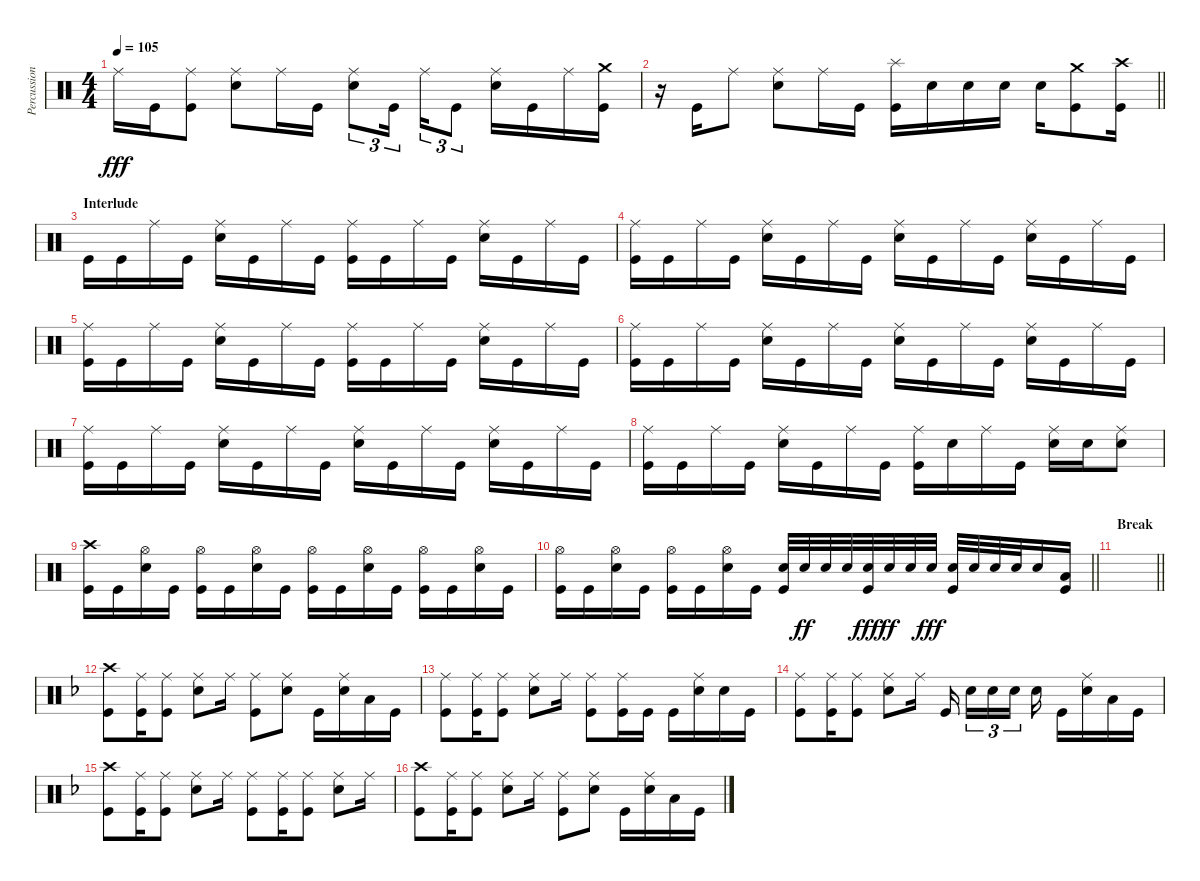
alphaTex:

\track ("Percussion" "Percussion") {instrument percussion}
\staff {score}
\articulation defaults
\ts (4 4)
\tempo 105
\clef neutral
\ks c "Ride (middle)".16{dy fff} "Kick (hit)".16
("Ride (middle)" "Kick (hit)").8 ("Ride (middle)" "Electric Snare (hit)").8 "Ride (middle)".16 "Kick (hit)".16 ("Ride (middle)" "Electric Snare (hit)").8{tu (3 2)} "Kick (hit)".16{tu (3 2) beam splitsecondary} "Ride (middle)".16{tu (3 2)} "Kick (hit)".8{tu (3 2)} ("Ride (middle)" "Electric Snare (hit)").16 "Kick (hit)".16 "Ride (middle)".16 ("Crash medium (hit)" "Kick (hit)").16 |
\barLineRight lightlight
r.16 "Kick (hit)".16 "Ride (middle)".8 ("Ride (middle)" "Electric Snare (hit)").8 "Ride (middle)".16 "Kick (hit)".16 ("Splash (hit)" "Kick (hit)").16 "Electric Snare (hit)".16 "Electric Snare (hit)".16 "Electric Snare (hit)".16 "Electric Snare (hit)".16 ("Crash medium (hit)" "Kick (hit)").8 ("Crash high (hit)" "Kick (hit)").16 |
\section ("" "Interlude")
"Kick (hit)".16 "Kick (hit)".16 "Ride (middle)".16 "Kick (hit)".16 ("Ride (middle)" "Electric Snare (hit)").16 "Kick (hit)".16 "Ride (middle)".16 "Kick (hit)".16 ("Ride (middle)" "Kick (hit)").16 "Kick (hit)".16 "Ride (middle)".16 "Kick (hit)".16 ("Ride (middle)" "Electric Snare (hit)").16 "Kick (hit)".16 "Ride (middle)".16 "Kick (hit)".16 |
("Ride (middle)" "Kick (hit)").16 "Kick (hit)".16 "Ride (middle)".16 "Kick (hit)".16 ("Ride (middle)" "Electric Snare (hit)").16 "Kick (hit)".16 "Ride (middle)".16 "Kick (hit)".16 ("Ride (middle)" "Electric Snare (hit)").16 "Kick (hit)".16 "Ride (middle)".16 "Kick (hit)".16 ("Ride (middle)" "Electric Snare (hit)").16 "Kick (hit)".16 "Ride (middle)".16 "Kick (hit)".16 |
("Ride (middle)" "Kick (hit)").16 "Kick (hit)".16 "Ride (middle)".16 "Kick (hit)".16 ("Ride (middle)" "Electric Snare (hit)").16 "Kick (hit)".16 "Ride (middle)".16 "Kick (hit)".16 ("Ride (middle)" "Kick (hit)").16 "Kick (hit)".16 "Ride (middle)".16 "Kick (hit)".16 ("Ride (middle)" "Electric Snare (hit)").16 "Kick (hit)".16 "Ride (middle)".16 "Kick (hit)".16 |
("Ride (middle)" "Kick (hit)").16 "Kick (hit)".16 "Ride (middle)".16 "Kick (hit)".16 ("Ride (middle)" "Electric Snare (hit)").16 "Kick (hit)".16 "Ride (middle)".16 "Kick (hit)".16 ("Ride (middle)" "Electric Snare (hit)").16 "Kick (hit)".16 "Ride (middle)".16 "Kick (hit)".16 ("Ride (middle)" "Electric Snare (hit)").16 "Kick (hit)".16 "Ride (middle)".16 "Kick (hit)".16 |
("Ride (middle)" "Kick (hit)").16 "Kick (hit)".16 "Ride (middle)".16 "Kick (hit)".16 ("Ride (middle)" "Electric Snare (hit)").16 "Kick (hit)".16 "Ride (middle)".16 "Kick (hit)".16 ("Ride (middle)" "Electric Snare (hit)").16 "Kick (hit)".16 "Ride (middle)".16 "Kick (hit)".16 ("Ride (middle)" "Electric Snare (hit)").16 "Kick (hit)".16 "Ride (middle)".16 "Kick (hit)".16 |
("Ride (middle)" "Kick (hit)").16 "Kick (hit)".16 "Ride (middle)".16 "Kick (hit)".16 ("Ride (middle)" "Electric Snare (hit)").16 "Kick (hit)".16 "Ride (middle)".16 "Kick (hit)".16 ("Ride (middle)" "Kick (hit)").16 "Electric Snare (hit)".16 "Ride (middle)".16 "Kick (hit)".16 ("Ride (middle)" "Electric Snare (hit)").16 "Electric Snare (hit)".16 ("Ride (middle)" "Electric Snare (hit)").8 |
("Crash high (hit)" "Kick (hit)").16 "Kick (hit)".16 ("Hi-Hat (open)" "Electric Snare (hit)").16 "Kick (hit)".16 ("Hi-Hat (open)" "Kick (hit)").16 "Kick (hit)".16 ("Hi-Hat (open)" "Electric Snare (hit)").16 "Kick (hit)".16 ("Hi-Hat (open)" "Kick (hit)").16 "Kick (hit)".16 ("Hi-Hat (open)" "Electric Snare (hit)").16 "Kick (hit)".16 ("Hi-Hat (open)" "Kick (hit)").16 "Kick (hit)".16 ("Hi-Hat (open)" "Electric Snare (hit)").16 "Kick (hit)".16 |
\barLineRight lightlight
("Hi-Hat (open)" "Kick (hit)").16 "Kick (hit)".16 ("Hi-Hat (open)" "Electric Snare (hit)").16 "Kick (hit)".16 ("Hi-Hat (open)" "Kick (hit)").16 "Kick (hit)".16 ("Hi-Hat (open)" "Electric Snare (hit)").16 "Kick (hit)".16 ("Electric Snare (hit)" "Kick (hit)").32 "Electric Snare (hit)".32{dy ff} "Electric Snare (hit)".32 "Electric Snare (hit)".32 ("Electric Snare (hit)" "Kick (hit)").32{dy fff} "Electric Snare (hit)".32{dy ff} "Electric Snare (hit)".32 "Electric Snare (hit)".32{dy fff} ("Electric Snare (hit)" "Kick (hit)").32 "Electric Snare (hit)".32 "Electric Snare (hit)".32 "Electric Snare (hit)".32 "Electric Snare (hit)".16 ("Low Floor Tom (hit)" "Kick (hit)").16 |
\section ("" "Break")
\barLineRight lightlight
|
\ks f
("Crash high (hit)" "Kick (hit)").8 ("Ride (middle)" "Kick (hit)").16 ("Ride (middle)" "Kick (hit)").8 ("Ride (middle)" "Electric Snare (hit)").8 "Ride (middle)".16 ("Ride (middle)" "Kick (hit)").8 ("Ride (middle)" "Electric Snare (hit)").8 "Kick (hit)".16 ("Ride (middle)" "Electric Snare (hit)").16 "Low Tom (hit)".16 "Kick (hit)".16 |
("Ride (middle)" "Kick (hit)").8 ("Ride (middle)" "Kick (hit)").16 ("Ride (middle)" "Kick (hit)").8 ("Ride (middle)" "Electric Snare (hit)").8 "Ride (middle)".16 ("Ride (middle)" "Kick (hit)").8 ("Ride (middle)" "Kick (hit)").16 "Kick (hit)".16 "Kick (hit)".16 ("Ride (middle)" "Electric Snare (hit)").16 "Electric Snare (hit)".16 "Kick (hit)".16 |
("Ride (middle)" "Kick (hit)").8 ("Ride (middle)" "Kick (hit)").16 ("Ride (middle)" "Kick (hit)").8 ("Ride (middle)" "Electric Snare (hit)").8 "Ride (middle)".16 "Kick (hit)".16{beam splitsecondary} "Electric Snare (hit)".16{tu (3 2)} "Electric Snare (hit)".16{tu (3 2)} "Electric Snare (hit)".16{tu (3 2) beam splitsecondary} "Electric Snare (hit)".16 "Kick (hit)".16 ("Ride (middle)" "Electric Snare (hit)").16 "Low Tom (hit)".16 "Kick (hit)".16 |
("Crash high (hit)" "Kick (hit)").8 ("Ride (middle)" "Kick (hit)").16 ("Ride (middle)" "Kick (hit)").8 ("Ride (middle)" "Electric Snare (hit)").8 "Ride (middle)".16 ("Ride (middle)" "Kick (hit)").8 ("Ride (middle)" "Kick (hit)").16 ("Ride (middle)" "Kick (hit)").8 ("Ride (middle)" "Electric Snare (hit)").8 "Ride (middle)".16 |
("Crash high (hit)" "Kick (hit)").8 ("Ride (middle)" "Kick (hit)").16 ("Ride (middle)" "Kick (hit)").8 ("Ride (middle)" "Electric Snare (hit)").8 "Ride (middle)".16 ("Ride (middle)" "Kick (hit)").8 ("Ride (middle)" "Electric Snare (hit)").8 "Kick (hit)".16 ("Ride (middle)" "Electric Snare (hit)").16 "Low Tom (hit)".16 "Kick (hit)".16
